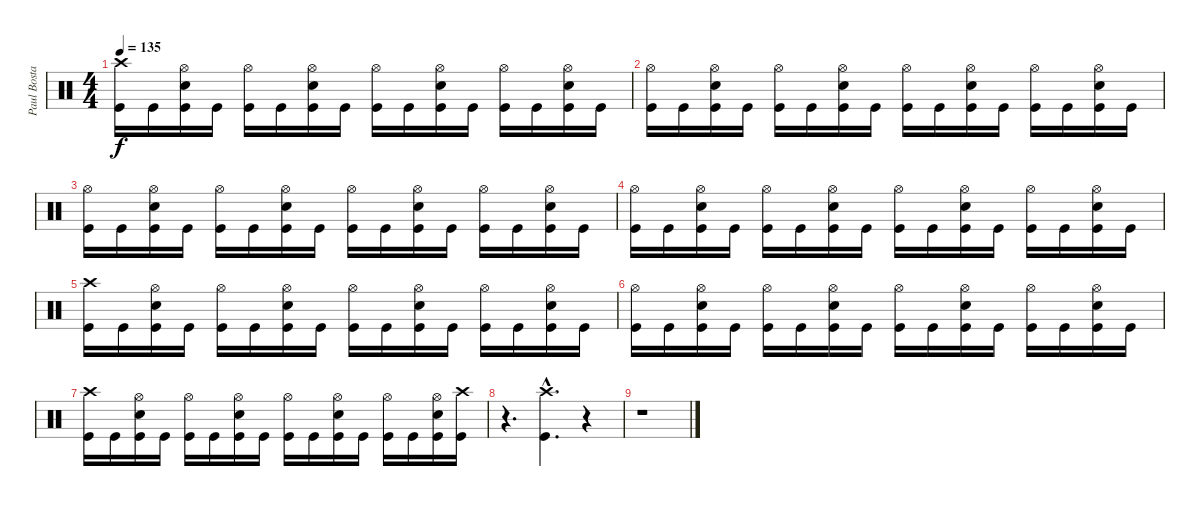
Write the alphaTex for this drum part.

\track ("Paul Bostaph" "Paul Bosta") {instrument percussion}
\staff {score}
\articulation defaults
\ts (4 4)
\tempo 135
\clef neutral
\ks c
("Crash high (hit)" "Kick (hit)").16{dy f} "Kick (hit)".16 ("Hi-Hat (open)" "Snare (hit) 2" "Kick (hit)").16 "Kick (hit)".16 ("Hi-Hat (open)" "Kick (hit)").16 "Kick (hit)".16 ("Hi-Hat (open)" "Snare (hit) 2" "Kick (hit)").16 "Kick (hit)".16 ("Hi-Hat (open)" "Kick (hit)").16 "Kick (hit)".16 ("Hi-Hat (open)" "Snare (hit) 2" "Kick (hit)").16 "Kick (hit)".16 ("Hi-Hat (open)" "Kick (hit)").16 "Kick (hit)".16 ("Hi-Hat (open)" "Snare (hit) 2" "Kick (hit)").16 "Kick (hit)".16 |
("Hi-Hat (open)" "Kick (hit)").16 "Kick (hit)".16 ("Hi-Hat (open)" "Snare (hit) 2" "Kick (hit)").16 "Kick (hit)".16 ("Hi-Hat (open)" "Kick (hit)").16 "Kick (hit)".16 ("Hi-Hat (open)" "Snare (hit) 2" "Kick (hit)").16 "Kick (hit)".16 ("Hi-Hat (open)" "Kick (hit)").16 "Kick (hit)".16 ("Hi-Hat (open)" "Snare (hit) 2" "Kick (hit)").16 "Kick (hit)".16 ("Hi-Hat (open)" "Kick (hit)").16 "Kick (hit)".16 ("Hi-Hat (open)" "Snare (hit) 2" "Kick (hit)").16 "Kick (hit)".16 |
("Hi-Hat (open)" "Kick (hit)").16 "Kick (hit)".16 ("Hi-Hat (open)" "Snare (hit) 2" "Kick (hit)").16 "Kick (hit)".16 ("Hi-Hat (open)" "Kick (hit)").16 "Kick (hit)".16 ("Hi-Hat (open)" "Snare (hit) 2" "Kick (hit)").16 "Kick (hit)".16 ("Hi-Hat (open)" "Kick (hit)").16 "Kick (hit)".16 ("Hi-Hat (open)" "Snare (hit) 2" "Kick (hit)").16 "Kick (hit)".16 ("Hi-Hat (open)" "Kick (hit)").16 "Kick (hit)".16 ("Hi-Hat (open)" "Snare (hit) 2" "Kick (hit)").16 "Kick (hit)".16 |
("Hi-Hat (open)" "Kick (hit)").16 "Kick (hit)".16 ("Hi-Hat (open)" "Snare (hit) 2" "Kick (hit)").16 "Kick (hit)".16 ("Hi-Hat (open)" "Kick (hit)").16 "Kick (hit)".16 ("Hi-Hat (open)" "Snare (hit) 2" "Kick (hit)").16 "Kick (hit)".16 ("Hi-Hat (open)" "Kick (hit)").16 "Kick (hit)".16 ("Hi-Hat (open)" "Snare (hit) 2" "Kick (hit)").16 "Kick (hit)".16 ("Hi-Hat (open)" "Kick (hit)").16 "Kick (hit)".16 ("Hi-Hat (open)" "Snare (hit) 2" "Kick (hit)").16 "Kick (hit)".16 |
("Crash high (hit)" "Kick (hit)").16 "Kick (hit)".16 ("Hi-Hat (open)" "Snare (hit) 2" "Kick (hit)").16 "Kick (hit)".16 ("Hi-Hat (open)" "Kick (hit)").16 "Kick (hit)".16 ("Hi-Hat (open)" "Snare (hit) 2" "Kick (hit)").16 "Kick (hit)".16 ("Hi-Hat (open)" "Kick (hit)").16 "Kick (hit)".16 ("Hi-Hat (open)" "Snare (hit) 2" "Kick (hit)").16 "Kick (hit)".16 ("Hi-Hat (open)" "Kick (hit)").16 "Kick (hit)".16 ("Hi-Hat (open)" "Snare (hit) 2" "Kick (hit)").16 "Kick (hit)".16 |
("Hi-Hat (open)" "Kick (hit)").16 "Kick (hit)".16 ("Hi-Hat (open)" "Snare (hit) 2" "Kick (hit)").16 "Kick (hit)".16 ("Hi-Hat (open)" "Kick (hit)").16 "Kick (hit)".16 ("Hi-Hat (open)" "Snare (hit) 2" "Kick (hit)").16 "Kick (hit)".16 ("Hi-Hat (open)" "Kick (hit)").16 "Kick (hit)".16 ("Hi-Hat (open)" "Snare (hit) 2" "Kick (hit)").16 "Kick (hit)".16 ("Hi-Hat (open)" "Kick (hit)").16 "Kick (hit)".16 ("Hi-Hat (open)" "Snare (hit) 2" "Kick (hit)").16 "Kick (hit)".16 |
("Crash high (hit)" "Kick (hit)").16 "Kick (hit)".16 ("Hi-Hat (open)" "Snare (hit) 2" "Kick (hit)").16 "Kick (hit)".16 ("Hi-Hat (open)" "Kick (hit)").16 "Kick (hit)".16 ("Hi-Hat (open)" "Snare (hit) 2" "Kick (hit)").16 "Kick (hit)".16 ("Hi-Hat (open)" "Kick (hit)").16 "Kick (hit)".16 ("Hi-Hat (open)" "Snare (hit) 2" "Kick (hit)").16 "Kick (hit)".16 ("Hi-Hat (open)" "Kick (hit)").16 "Kick (hit)".16 ("Hi-Hat (open)" "Snare (hit) 2" "Kick (hit)").16 ("Crash high (hit)" "Kick (hit)").16 |
r.4{d} ("Crash high (hit)"{hac} "Kick (hit)"{hac}).4{d} r.4 |
r.1
